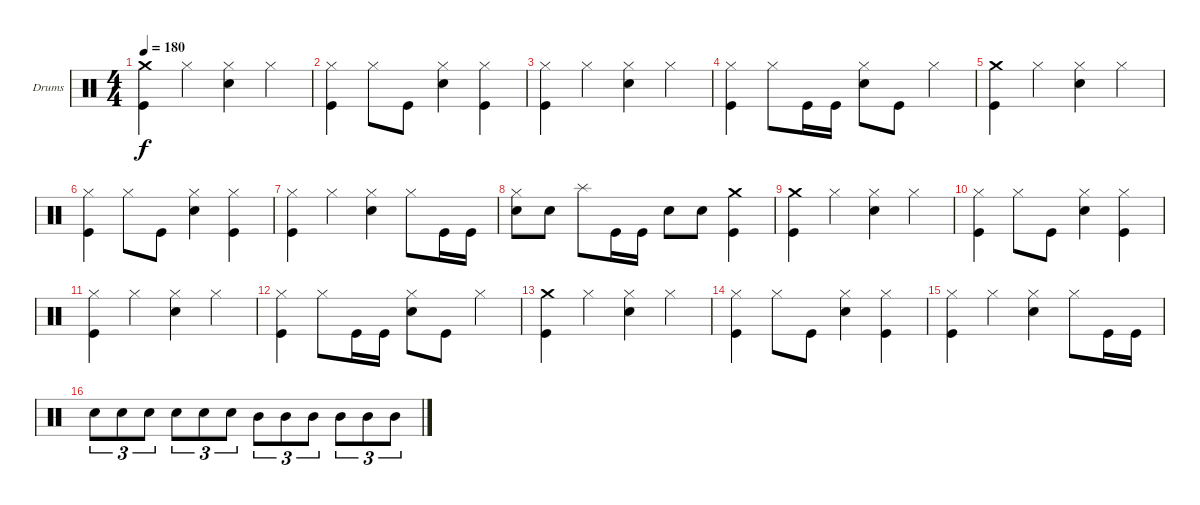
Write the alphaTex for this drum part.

\bracketExtendMode groupsimilarinstruments
\firstSystemTrackNameOrientation horizontal
\otherSystemsTrackNameOrientation horizontal
\track ("Drumkit" "Drums") {instrument percussion}
\staff {score}
\articulation defaults
\ts (4 4)
\tempo 180
\clef neutral
\ks c
("Crash medium (hit)" "Kick (hit)").4{dy f} "Hi-Hat (closed)".4 ("Hi-Hat (closed)" "Snare (hit) 2").4 "Hi-Hat (closed)".4 |
("Hi-Hat (closed)" "Kick (hit)").4 "Hi-Hat (closed)".8 "Kick (hit)".8 ("Hi-Hat (closed)" "Snare (hit) 2").4 ("Hi-Hat (closed)" "Kick (hit)").4 |
("Hi-Hat (closed)" "Kick (hit)").4 "Hi-Hat (closed)".4 ("Hi-Hat (closed)" "Snare (hit) 2").4 "Hi-Hat (closed)".4 |
("Hi-Hat (closed)" "Kick (hit)").4 "Hi-Hat (closed)".8 "Kick (hit)".16 "Kick (hit)".16 ("Hi-Hat (closed)" "Snare (hit) 2").8 "Kick (hit)".8 "Hi-Hat (closed)".4 |
("Crash medium (hit)" "Kick (hit)").4 "Hi-Hat (closed)".4 ("Hi-Hat (closed)" "Snare (hit) 2").4 "Hi-Hat (closed)".4 |
("Hi-Hat (closed)" "Kick (hit)").4 "Hi-Hat (closed)".8 "Kick (hit)".8 ("Hi-Hat (closed)" "Snare (hit) 2").4 ("Hi-Hat (closed)" "Kick (hit)").4 |
("Hi-Hat (closed)" "Kick (hit)").4 "Hi-Hat (closed)".4 ("Hi-Hat (closed)" "Snare (hit) 2").4 "Hi-Hat (closed)".8 "Kick (hit)".16 "Kick (hit)".16 |
("Hi-Hat (closed)" "Snare (hit) 2").8 "Snare (hit) 2".8 "Splash (hit)".8 "Kick (hit)".16 "Kick (hit)".16 "Snare (hit) 2".8 "Snare (hit) 2".8 ("Crash medium (hit)" "Kick (hit)").4 |
("Crash medium (hit)" "Kick (hit)").4 "Hi-Hat (closed)".4 ("Hi-Hat (closed)" "Snare (hit) 2").4 "Hi-Hat (closed)".4 |
("Hi-Hat (closed)" "Kick (hit)").4 "Hi-Hat (closed)".8 "Kick (hit)".8 ("Hi-Hat (closed)" "Snare (hit) 2").4 ("Hi-Hat (closed)" "Kick (hit)").4 |
("Hi-Hat (closed)" "Kick (hit)").4 "Hi-Hat (closed)".4 ("Hi-Hat (closed)" "Snare (hit) 2").4 "Hi-Hat (closed)".4 |
("Hi-Hat (closed)" "Kick (hit)").4 "Hi-Hat (closed)".8 "Kick (hit)".16 "Kick (hit)".16 ("Hi-Hat (closed)" "Snare (hit) 2").8 "Kick (hit)".8 "Hi-Hat (closed)".4 |
("Crash medium (hit)" "Kick (hit)").4 "Hi-Hat (closed)".4 ("Hi-Hat (closed)" "Snare (hit) 2").4 "Hi-Hat (closed)".4 |
("Hi-Hat (closed)" "Kick (hit)").4 "Hi-Hat (closed)".8 "Kick (hit)".8 ("Hi-Hat (closed)" "Snare (hit) 2").4 ("Hi-Hat (closed)" "Kick (hit)").4 |
("Hi-Hat (closed)" "Kick (hit)").4 "Hi-Hat (closed)".4 ("Hi-Hat (closed)" "Snare (hit) 2").4 "Hi-Hat (closed)".8 "Kick (hit)".16 "Kick (hit)".16 |
"Snare (hit) 2".8{tu (3 2)} "Snare (hit) 2".8{tu (3 2)} "Snare (hit) 2".8{tu (3 2)} "Snare (hit) 2".8{tu (3 2)} "Snare (hit) 2".8{tu (3 2)} "Snare (hit) 2".8{tu (3 2)} "Mid Tom (hit)".8{tu (3 2)} "Mid Tom (hit)".8{tu (3 2)} "Mid Tom (hit)".8{tu (3 2)} "Mid Tom (hit)".8{tu (3 2)} "Mid Tom (hit)".8{tu (3 2)} "Mid Tom (hit)".8{tu (3 2)}
